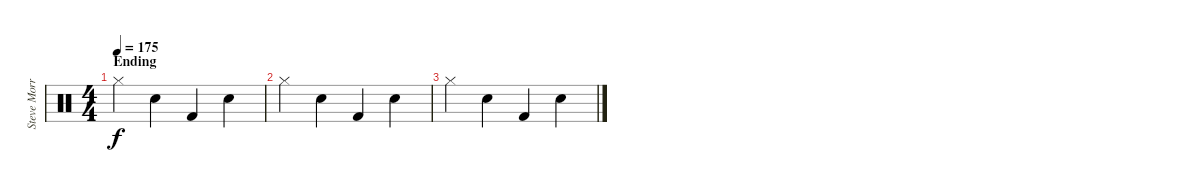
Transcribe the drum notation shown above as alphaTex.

\track ("Steve Morris" "Steve Morr") {instrument percussion}
\staff {score}
\articulation defaults
\ts (4 4)
\section ("" "Ending")
\tempo 175
\clef neutral
\ks c "Hi-Hat (closed)".4{dy f} "Snare (hit) 2".4 "Kick (hit) 2".4 "Snare (hit) 2".4
|
"Hi-Hat (closed)".4 "Snare (hit) 2".4 "Kick (hit) 2".4 "Snare (hit) 2".4 |
"Hi-Hat (closed)".4 "Snare (hit) 2".4 "Kick (hit) 2".4 "Snare (hit) 2".4
